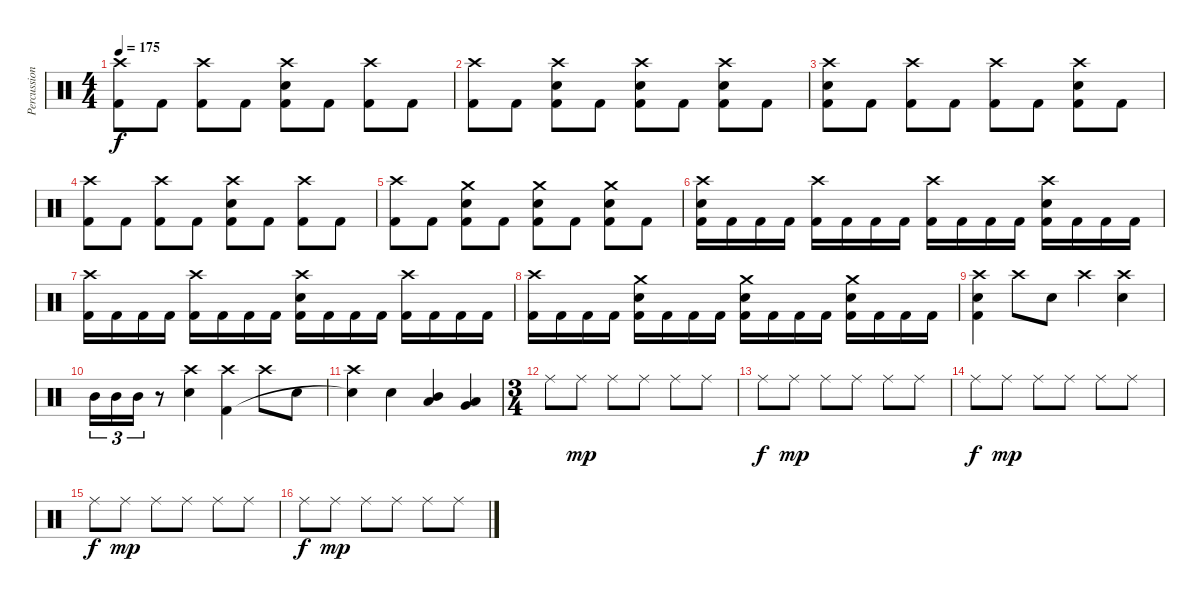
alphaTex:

\track ("Percussion" "Percussion") {instrument percussion}
\staff {score}
\articulation defaults
\ts (4 4)
\tempo 175
\clef neutral
\ks c
("Crash high (hit)" "Kick (hit) 2").8{dy f} "Kick (hit) 2".8 ("Crash high (hit)" "Kick (hit) 2").8 "Kick (hit) 2".8 ("Crash high (hit)" "Electric Snare (hit)" "Kick (hit) 2").8 "Kick (hit) 2".8 ("Crash high (hit)" "Kick (hit) 2").8 "Kick (hit) 2".8 |
("Crash high (hit)" "Kick (hit) 2").8 "Kick (hit) 2".8 ("Crash high (hit)" "Electric Snare (hit)" "Kick (hit) 2").8 "Kick (hit) 2".8 ("Crash high (hit)" "Electric Snare (hit)" "Kick (hit) 2").8 "Kick (hit) 2".8 ("Crash high (hit)" "Electric Snare (hit)" "Kick (hit) 2").8 "Kick (hit) 2".8 |
("Crash high (hit)" "Electric Snare (hit)" "Kick (hit) 2").8 "Kick (hit) 2".8 ("Crash high (hit)" "Kick (hit) 2").8 "Kick (hit) 2".8 ("Crash high (hit)" "Kick (hit) 2").8 "Kick (hit) 2".8 ("Crash high (hit)" "Electric Snare (hit)" "Kick (hit) 2").8 "Kick (hit) 2".8 |
("Crash high (hit)" "Kick (hit) 2").8 "Kick (hit) 2".8 ("Crash high (hit)" "Kick (hit) 2").8 "Kick (hit) 2".8 ("Crash high (hit)" "Electric Snare (hit)" "Kick (hit) 2").8 "Kick (hit) 2".8 ("Crash high (hit)" "Kick (hit) 2").8 "Kick (hit) 2".8 |
("Crash high (hit)" "Kick (hit) 2").8 "Kick (hit) 2".8 ("Crash medium (hit)" "Electric Snare (hit)" "Kick (hit) 2").8 "Kick (hit) 2".8 ("Crash medium (hit)" "Electric Snare (hit)" "Kick (hit) 2").8 "Kick (hit) 2".8 ("Crash medium (hit)" "Electric Snare (hit)" "Kick (hit) 2").8 "Kick (hit) 2".8 |
("Crash high (hit)" "Electric Snare (hit)" "Kick (hit) 2").16{volume 10} "Kick (hit) 2".16 "Kick (hit) 2".16 "Kick (hit) 2".16 ("Crash high (hit)" "Kick (hit) 2").16 "Kick (hit) 2".16 "Kick (hit) 2".16 "Kick (hit) 2".16 ("Crash high (hit)" "Kick (hit) 2").16 "Kick (hit) 2".16 "Kick (hit) 2".16 "Kick (hit) 2".16 ("Crash high (hit)" "Electric Snare (hit)" "Kick (hit) 2").16 "Kick (hit) 2".16 "Kick (hit) 2".16 "Kick (hit) 2".16 |
("Crash high (hit)" "Kick (hit) 2").16 "Kick (hit) 2".16 "Kick (hit) 2".16 "Kick (hit) 2".16 ("Crash high (hit)" "Kick (hit) 2").16 "Kick (hit) 2".16 "Kick (hit) 2".16 "Kick (hit) 2".16 ("Crash high (hit)" "Electric Snare (hit)" "Kick (hit) 2").16 "Kick (hit) 2".16 "Kick (hit) 2".16 "Kick (hit) 2".16 ("Crash high (hit)" "Kick (hit) 2").16 "Kick (hit) 2".16 "Kick (hit) 2".16 "Kick (hit) 2".16 |
("Crash high (hit)" "Kick (hit) 2").16 "Kick (hit) 2".16 "Kick (hit) 2".16 "Kick (hit) 2".16 ("Crash medium (hit)" "Electric Snare (hit)" "Kick (hit) 2").16 "Kick (hit) 2".16 "Kick (hit) 2".16 "Kick (hit) 2".16 ("Crash medium (hit)" "Electric Snare (hit)" "Kick (hit) 2").16 "Kick (hit) 2".16 "Kick (hit) 2".16 "Kick (hit) 2".16 ("Crash medium (hit)" "Electric Snare (hit)" "Kick (hit) 2").16 "Kick (hit) 2".16 "Kick (hit) 2".16 "Kick (hit) 2".16 |
("Crash high (hit)" "Electric Snare (hit)" "Kick (hit) 2").4 "Crash high (hit)".8 "Electric Snare (hit)".8 "Crash high (hit)".4 ("Crash high (hit)" "Electric Snare (hit)").4 |
"Mid Tom (hit)".16{tu (3 2)} "Mid Tom (hit)".16{tu (3 2)} "Mid Tom (hit)".16{tu (3 2)} r.8 ("Crash high (hit)" "Electric Snare (hit)").4 ("Crash high (hit)" "Kick (hit) 2").4 "Crash high (hit)".8 "Electric Snare (hit)".8 |
("Crash high (hit)" "Snare (hit)"{t}).4 "Electric Snare (hit)".4 ("Mid Tom (hit)" "Low Tom (hit)").4 ("Low Floor Tom (hit)" "Very Low Tom (hit)").4 |
\ts (3 4)
"Ride (middle)".8{volume 9} "Ride (middle)".8{dy mp} "Ride (middle)".8 "Ride (middle)".8 "Ride (middle)".8 "Ride (middle)".8 |
"Ride (middle)".8{dy f} "Ride (middle)".8{dy mp} "Ride (middle)".8 "Ride (middle)".8 "Ride (middle)".8 "Ride (middle)".8 |
"Ride (middle)".8{dy f} "Ride (middle)".8{dy mp} "Ride (middle)".8 "Ride (middle)".8 "Ride (middle)".8 "Ride (middle)".8 |
"Ride (middle)".8{dy f} "Ride (middle)".8{dy mp} "Ride (middle)".8 "Ride (middle)".8 "Ride (middle)".8 "Ride (middle)".8 |
"Ride (middle)".8{dy f} "Ride (middle)".8{dy mp} "Ride (middle)".8 "Ride (middle)".8 "Ride (middle)".8 "Ride (middle)".8
